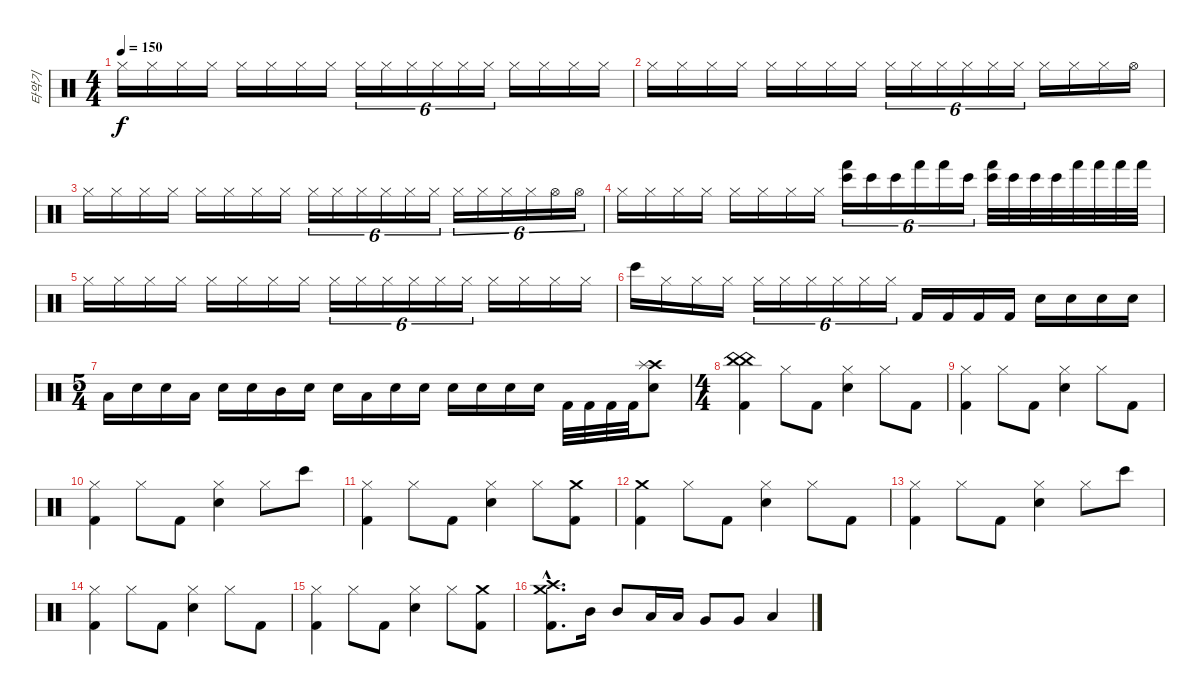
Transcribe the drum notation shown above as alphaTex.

\track ("타악기" "타악기") {instrument percussion}
\staff {score}
\articulation defaults
\ts (4 4)
\tempo 150
\clef neutral
\ks c "Hi-Hat (closed)".16{dy f} "Hi-Hat (closed)".16 "Hi-Hat (closed)".16 "Hi-Hat (closed)".16 "Hi-Hat (closed)".16 "Hi-Hat (closed)".16 "Hi-Hat (closed)".16 "Hi-Hat (closed)".16 "Hi-Hat (closed)".16{tu (6 4)} "Hi-Hat (closed)".16{tu (6 4)} "Hi-Hat (closed)".16{tu (6 4)} "Hi-Hat (closed)".16{tu (6 4)} "Hi-Hat (closed)".16{tu (6 4)} "Hi-Hat (closed)".16{tu (6 4)} "Hi-Hat (closed)".16 "Hi-Hat (closed)".16 "Hi-Hat (closed)".16 "Hi-Hat (closed)".16
|
"Hi-Hat (closed)".16 "Hi-Hat (closed)".16 "Hi-Hat (closed)".16 "Hi-Hat (closed)".16 "Hi-Hat (closed)".16 "Hi-Hat (closed)".16 "Hi-Hat (closed)".16 "Hi-Hat (closed)".16 "Hi-Hat (closed)".16{tu (6 4)} "Hi-Hat (closed)".16{tu (6 4)} "Hi-Hat (closed)".16{tu (6 4)} "Hi-Hat (closed)".16{tu (6 4)} "Hi-Hat (closed)".16{tu (6 4)} "Hi-Hat (closed)".16{tu (6 4)} "Hi-Hat (closed)".16 "Hi-Hat (closed)".16 "Hi-Hat (closed)".16 "Hi-Hat (open)".16 |
"Hi-Hat (closed)".16 "Hi-Hat (closed)".16 "Hi-Hat (closed)".16 "Hi-Hat (closed)".16 "Hi-Hat (closed)".16 "Hi-Hat (closed)".16 "Hi-Hat (closed)".16 "Hi-Hat (closed)".16 "Hi-Hat (closed)".16{tu (6 4)} "Hi-Hat (closed)".16{tu (6 4)} "Hi-Hat (closed)".16{tu (6 4)} "Hi-Hat (closed)".16{tu (6 4)} "Hi-Hat (closed)".16{tu (6 4)} "Hi-Hat (closed)".16{tu (6 4)} "Hi-Hat (closed)".16{tu (6 4)} "Hi-Hat (closed)".16{tu (6 4)} "Hi-Hat (closed)".16{tu (6 4)} "Hi-Hat (closed)".16{tu (6 4)} "Hi-Hat (open)".16{tu (6 4)} "Hi-Hat (open)".16{tu (6 4)} |
"Hi-Hat (closed)".16 "Hi-Hat (closed)".16 "Hi-Hat (closed)".16 "Hi-Hat (closed)".16 "Hi-Hat (closed)".16 "Hi-Hat (closed)".16 "Hi-Hat (closed)".16 "Hi-Hat (closed)".16 ("Bongo High (hit)" "Hand (hit)").16{tu (6 4)} "Bongo High (hit)".16{tu (6 4)} "Bongo High (hit)".16{tu (6 4)} "Hand (hit)".16{tu (6 4)} "Hand (hit)".16{tu (6 4)} "Bongo High (hit)".16{tu (6 4)} ("Bongo High (hit)" "Hand (hit)").32 "Bongo High (hit)".32 "Bongo High (hit)".32 "Bongo High (hit)".32 "Hand (hit)".32 "Hand (hit)".32 "Hand (hit)".32 "Hand (hit)".32 |
"Hi-Hat (closed)".16 "Hi-Hat (closed)".16 "Hi-Hat (closed)".16 "Hi-Hat (closed)".16 "Hi-Hat (closed)".16 "Hi-Hat (closed)".16 "Hi-Hat (closed)".16 "Hi-Hat (closed)".16 "Hi-Hat (closed)".16{tu (6 4)} "Hi-Hat (closed)".16{tu (6 4)} "Hi-Hat (closed)".16{tu (6 4)} "Hi-Hat (closed)".16{tu (6 4)} "Hi-Hat (closed)".16{tu (6 4)} "Hi-Hat (closed)".16{tu (6 4)} "Hi-Hat (closed)".16 "Hi-Hat (closed)".16 "Hi-Hat (closed)".16 "Hi-Hat (closed)".16 |
"Bongo High (hit)".16 "Hi-Hat (closed)".16 "Hi-Hat (closed)".16 "Hi-Hat (closed)".16 "Hi-Hat (closed)".16{tu (6 4)} "Hi-Hat (closed)".16{tu (6 4)} "Hi-Hat (closed)".16{tu (6 4)} "Hi-Hat (closed)".16{tu (6 4)} "Hi-Hat (closed)".16{tu (6 4)} "Hi-Hat (closed)".16{tu (6 4)} "Kick (hit) 2".16 "Kick (hit) 2".16 "Kick (hit) 2".16 "Kick (hit) 2".16 "Snare (hit) 2".16 "Snare (hit) 2".16 "Snare (hit) 2".16 "Snare (hit) 2".16 |
\ts (5 4)
"Low Tom (hit)".16 "Snare (hit) 2".16 "Snare (hit) 2".16 "Low Tom (hit)".16 "Snare (hit) 2".16 "Snare (hit) 2".16 "Mid Tom (hit)".16 "Snare (hit) 2".16 "Snare (hit) 2".16 "Low Floor Tom (hit)".16 "Snare (hit) 2".16 "Snare (hit) 2".16 "Snare (hit) 2".16 "Snare (hit) 2".16 "Snare (hit) 2".16 "Snare (hit) 2".16 "Kick (hit) 2".32 "Kick (hit) 2".32 "Kick (hit) 2".32 "Kick (hit) 2".32 ("Crash high (hit)" "Snare (hit) 2" "Splash (hit)").8 |
\ts (4 4)
("China (hit)" "China (hit)" "Kick (hit) 2").4 "Hi-Hat (closed)".8 "Kick (hit) 2".8 ("Snare (hit) 2" "Hi-Hat (closed)").4 "Hi-Hat (closed)".8 "Kick (hit) 2".8 |
("Hi-Hat (closed)" "Kick (hit) 2").4 "Hi-Hat (closed)".8 "Kick (hit) 2".8 ("Snare (hit) 2" "Hi-Hat (closed)").4 "Hi-Hat (closed)".8 "Kick (hit) 2".8 |
("Hi-Hat (closed)" "Kick (hit) 2").4 "Hi-Hat (closed)".8 "Kick (hit) 2".8 ("Snare (hit) 2" "Hi-Hat (closed)").4 "Hi-Hat (closed)".8 "Bongo High (hit)".8 |
("Hi-Hat (closed)" "Kick (hit) 2").4 "Hi-Hat (closed)".8 "Kick (hit) 2".8 ("Snare (hit) 2" "Hi-Hat (closed)").4 "Hi-Hat (closed)".8 ("Crash medium (hit)" "Kick (hit) 2").8 |
("Crash medium (hit)" "Kick (hit) 2").4 "Hi-Hat (closed)".8 "Kick (hit) 2".8 ("Snare (hit) 2" "Hi-Hat (closed)").4 "Hi-Hat (closed)".8 "Kick (hit) 2".8 |
("Hi-Hat (closed)" "Kick (hit) 2").4 "Hi-Hat (closed)".8 "Kick (hit) 2".8 ("Snare (hit) 2" "Hi-Hat (closed)").4 "Hi-Hat (closed)".8 "Bongo High (hit)".8 |
("Hi-Hat (closed)" "Kick (hit) 2").4 "Hi-Hat (closed)".8 "Kick (hit) 2".8 ("Snare (hit) 2" "Hi-Hat (closed)").4 "Hi-Hat (closed)".8 "Kick (hit) 2".8 |
("Hi-Hat (closed)" "Kick (hit) 2").4 "Hi-Hat (closed)".8 "Kick (hit) 2".8 ("Snare (hit) 2" "Hi-Hat (closed)").4 "Hi-Hat (closed)".8 ("Crash medium (hit)" "Kick (hit) 2").8 |
("Crash high (hit)"{hac} "Crash medium (hit)"{hac} "Kick (hit) 2"{hac}).8{d} "Mid Tom (hit)".16 "Mid Tom (hit)".8 "Low Tom (hit)".16 "Low Tom (hit)".16 "Very Low Tom (hit)".8 "Very Low Tom (hit)".8 "Low Floor Tom (hit)".4
